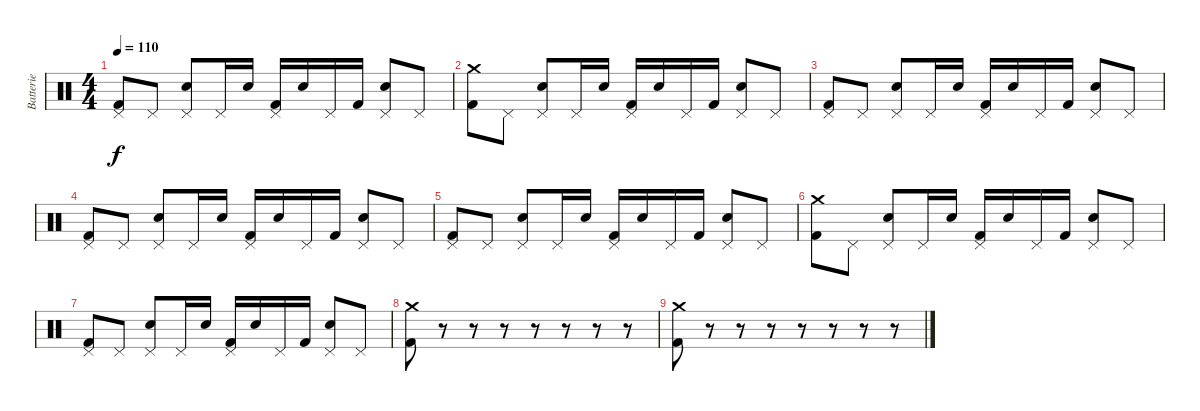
\track ("Batterie" "Batterie") {instrument percussion}
\staff {score}
\articulation defaults
\ts (4 4)
\tempo 110
\clef neutral
\ks c
("Pedal Hi-Hat (hit)" "Kick (hit) 2").8{dy f} "Pedal Hi-Hat (hit)".8 ("Pedal Hi-Hat (hit)" "Electric Snare (hit)").8 "Pedal Hi-Hat (hit)".16 "Electric Snare (hit)".16 ("Pedal Hi-Hat (hit)" "Kick (hit) 2").16 "Electric Snare (hit)".16 "Pedal Hi-Hat (hit)".16 "Kick (hit) 2".16 ("Pedal Hi-Hat (hit)" "Electric Snare (hit)").8 "Pedal Hi-Hat (hit)".8 |
("Crash medium (hit)" "Kick (hit) 2").8 "Pedal Hi-Hat (hit)".8 ("Pedal Hi-Hat (hit)" "Electric Snare (hit)").8 "Pedal Hi-Hat (hit)".16 "Electric Snare (hit)".16 ("Pedal Hi-Hat (hit)" "Kick (hit) 2").16 "Electric Snare (hit)".16 "Pedal Hi-Hat (hit)".16 "Kick (hit) 2".16 ("Pedal Hi-Hat (hit)" "Electric Snare (hit)").8 "Pedal Hi-Hat (hit)".8 |
("Pedal Hi-Hat (hit)" "Kick (hit) 2").8 "Pedal Hi-Hat (hit)".8 ("Pedal Hi-Hat (hit)" "Electric Snare (hit)").8 "Pedal Hi-Hat (hit)".16 "Electric Snare (hit)".16 ("Pedal Hi-Hat (hit)" "Kick (hit) 2").16 "Electric Snare (hit)".16 "Pedal Hi-Hat (hit)".16 "Kick (hit) 2".16 ("Pedal Hi-Hat (hit)" "Electric Snare (hit)").8 "Pedal Hi-Hat (hit)".8 |
("Pedal Hi-Hat (hit)" "Kick (hit) 2").8 "Pedal Hi-Hat (hit)".8 ("Pedal Hi-Hat (hit)" "Electric Snare (hit)").8 "Pedal Hi-Hat (hit)".16 "Electric Snare (hit)".16 ("Pedal Hi-Hat (hit)" "Kick (hit) 2").16 "Electric Snare (hit)".16 "Pedal Hi-Hat (hit)".16 "Kick (hit) 2".16 ("Pedal Hi-Hat (hit)" "Electric Snare (hit)").8 "Pedal Hi-Hat (hit)".8 |
("Pedal Hi-Hat (hit)" "Kick (hit) 2").8 "Pedal Hi-Hat (hit)".8 ("Pedal Hi-Hat (hit)" "Electric Snare (hit)").8 "Pedal Hi-Hat (hit)".16 "Electric Snare (hit)".16 ("Pedal Hi-Hat (hit)" "Kick (hit) 2").16 "Electric Snare (hit)".16 "Pedal Hi-Hat (hit)".16 "Kick (hit) 2".16 ("Pedal Hi-Hat (hit)" "Electric Snare (hit)").8 "Pedal Hi-Hat (hit)".8 |
("Crash medium (hit)" "Kick (hit) 2").8 "Pedal Hi-Hat (hit)".8 ("Pedal Hi-Hat (hit)" "Electric Snare (hit)").8 "Pedal Hi-Hat (hit)".16 "Electric Snare (hit)".16 ("Pedal Hi-Hat (hit)" "Kick (hit) 2").16 "Electric Snare (hit)".16 "Pedal Hi-Hat (hit)".16 "Kick (hit) 2".16 ("Pedal Hi-Hat (hit)" "Electric Snare (hit)").8 "Pedal Hi-Hat (hit)".8 |
("Pedal Hi-Hat (hit)" "Kick (hit) 2").8 "Pedal Hi-Hat (hit)".8 ("Pedal Hi-Hat (hit)" "Electric Snare (hit)").8 "Pedal Hi-Hat (hit)".16 "Electric Snare (hit)".16 ("Pedal Hi-Hat (hit)" "Kick (hit) 2").16 "Electric Snare (hit)".16 "Pedal Hi-Hat (hit)".16 "Kick (hit) 2".16 ("Pedal Hi-Hat (hit)" "Electric Snare (hit)").8 "Pedal Hi-Hat (hit)".8 |
("Crash medium (hit)" "Kick (hit) 2").8 r.8 r.8 r.8 r.8 r.8 r.8 r.8 |
("Crash medium (hit)" "Kick (hit) 2").8 r.8 r.8 r.8 r.8 r.8 r.8 r.8
